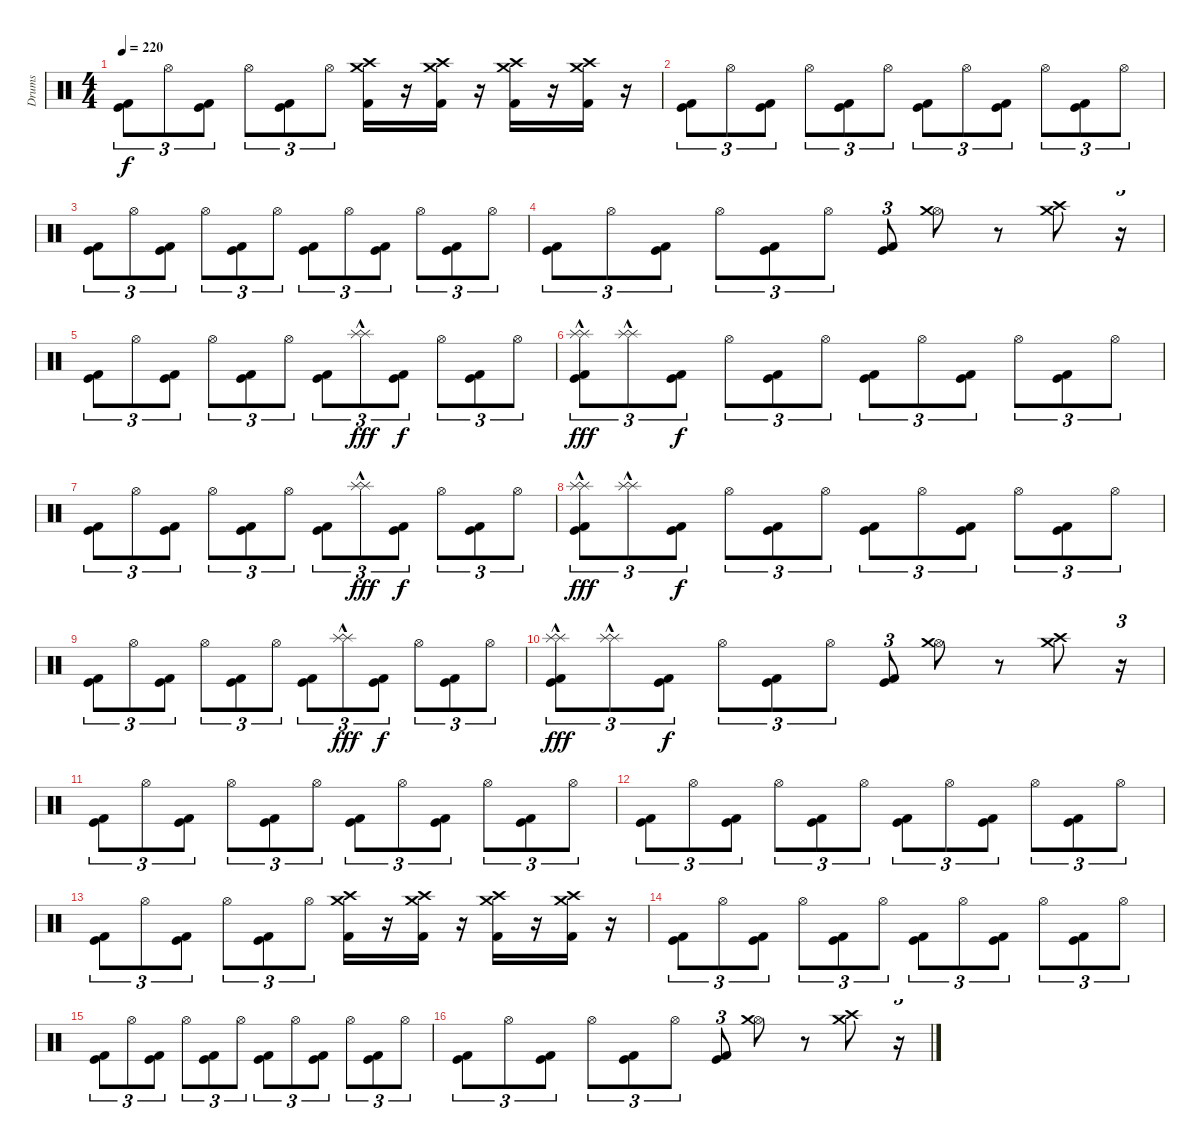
\track ("Drums" "Drums") {instrument percussion}
\staff {score}
\articulation defaults
\ts (4 4)
\tempo 220
\clef neutral
\ks c
("Kick (hit)" "Kick (hit) 2").8{tu (3 2) dy f} "Hi-Hat (open)".8{tu (3 2)} ("Kick (hit)" "Kick (hit) 2").8{tu (3 2)} "Hi-Hat (open)".8{tu (3 2)} ("Kick (hit)" "Kick (hit) 2").8{tu (3 2)} "Hi-Hat (open)".8{tu (3 2)} ("Crash high (hit)" "Crash medium (hit)" "Kick (hit) 2").16 r.16 ("Crash high (hit)" "Crash medium (hit)" "Kick (hit) 2").16 r.16 ("Crash high (hit)" "Crash medium (hit)" "Kick (hit) 2").16 r.16 ("Crash high (hit)" "Crash medium (hit)" "Kick (hit) 2").16 r.16 |
("Kick (hit)" "Kick (hit) 2").8{tu (3 2)} "Hi-Hat (open)".8{tu (3 2)} ("Kick (hit)" "Kick (hit) 2").8{tu (3 2)} "Hi-Hat (open)".8{tu (3 2)} ("Kick (hit)" "Kick (hit) 2").8{tu (3 2)} "Hi-Hat (open)".8{tu (3 2)} ("Kick (hit)" "Kick (hit) 2").8{tu (3 2)} "Hi-Hat (open)".8{tu (3 2)} ("Kick (hit)" "Kick (hit) 2").8{tu (3 2)} "Hi-Hat (open)".8{tu (3 2)} ("Kick (hit)" "Kick (hit) 2").8{tu (3 2)} "Hi-Hat (open)".8{tu (3 2)} |
("Kick (hit)" "Kick (hit) 2").8{tu (3 2)} "Hi-Hat (open)".8{tu (3 2)} ("Kick (hit)" "Kick (hit) 2").8{tu (3 2)} "Hi-Hat (open)".8{tu (3 2)} ("Kick (hit)" "Kick (hit) 2").8{tu (3 2)} "Hi-Hat (open)".8{tu (3 2)} ("Kick (hit)" "Kick (hit) 2").8{tu (3 2)} "Hi-Hat (open)".8{tu (3 2)} ("Kick (hit)" "Kick (hit) 2").8{tu (3 2)} "Hi-Hat (open)".8{tu (3 2)} ("Kick (hit)" "Kick (hit) 2").8{tu (3 2)} "Hi-Hat (open)".8{tu (3 2)} |
("Kick (hit)" "Kick (hit) 2").8{tu (3 2)} "Hi-Hat (open)".8{tu (3 2)} ("Kick (hit)" "Kick (hit) 2").8{tu (3 2)} "Hi-Hat (open)".8{tu (3 2)} ("Kick (hit)" "Kick (hit) 2").8{tu (3 2)} "Hi-Hat (open)".8{tu (3 2)} ("Kick (hit)" "Kick (hit) 2").8{tu (3 2)} ("Hi-Hat (open)" "Crash medium (hit)").8 r.8 ("Crash high (hit)" "Crash medium (hit)").8 r.16{tu (3 2)} |
("Kick (hit)" "Kick (hit) 2").8{tu (3 2)} "Hi-Hat (open)".8{tu (3 2)} ("Kick (hit)" "Kick (hit) 2").8{tu (3 2)} "Hi-Hat (open)".8{tu (3 2)} ("Kick (hit)" "Kick (hit) 2").8{tu (3 2)} "Hi-Hat (open)".8{tu (3 2)} ("Kick (hit)" "Kick (hit) 2").8{tu (3 2)} ("Splash (hit)"{hac} "Splash (hit)"{hac}).8{tu (3 2) dy fff} ("Kick (hit)" "Kick (hit) 2").8{tu (3 2) dy f} "Hi-Hat (open)".8{tu (3 2)} ("Kick (hit)" "Kick (hit) 2").8{tu (3 2)} "Hi-Hat (open)".8{tu (3 2)} |
("Splash (hit)"{hac} "Splash (hit)"{hac} "Kick (hit)" "Kick (hit) 2").8{tu (3 2) dy fff} ("Splash (hit)"{hac} "Splash (hit)"{hac}).8{tu (3 2)} ("Kick (hit)" "Kick (hit) 2").8{tu (3 2) dy f} "Hi-Hat (open)".8{tu (3 2)} ("Kick (hit)" "Kick (hit) 2").8{tu (3 2)} "Hi-Hat (open)".8{tu (3 2)} ("Kick (hit)" "Kick (hit) 2").8{tu (3 2)} "Hi-Hat (open)".8{tu (3 2)} ("Kick (hit)" "Kick (hit) 2").8{tu (3 2)} "Hi-Hat (open)".8{tu (3 2)} ("Kick (hit)" "Kick (hit) 2").8{tu (3 2)} "Hi-Hat (open)".8{tu (3 2)} |
("Kick (hit)" "Kick (hit) 2").8{tu (3 2)} "Hi-Hat (open)".8{tu (3 2)} ("Kick (hit)" "Kick (hit) 2").8{tu (3 2)} "Hi-Hat (open)".8{tu (3 2)} ("Kick (hit)" "Kick (hit) 2").8{tu (3 2)} "Hi-Hat (open)".8{tu (3 2)} ("Kick (hit)" "Kick (hit) 2").8{tu (3 2)} ("Splash (hit)"{hac} "Splash (hit)"{hac}).8{tu (3 2) dy fff} ("Kick (hit)" "Kick (hit) 2").8{tu (3 2) dy f} "Hi-Hat (open)".8{tu (3 2)} ("Kick (hit)" "Kick (hit) 2").8{tu (3 2)} "Hi-Hat (open)".8{tu (3 2)} |
("Splash (hit)"{hac} "Splash (hit)"{hac} "Kick (hit)" "Kick (hit) 2").8{tu (3 2) dy fff} ("Splash (hit)"{hac} "Splash (hit)"{hac}).8{tu (3 2)} ("Kick (hit)" "Kick (hit) 2").8{tu (3 2) dy f} "Hi-Hat (open)".8{tu (3 2)} ("Kick (hit)" "Kick (hit) 2").8{tu (3 2)} "Hi-Hat (open)".8{tu (3 2)} ("Kick (hit)" "Kick (hit) 2").8{tu (3 2)} "Hi-Hat (open)".8{tu (3 2)} ("Kick (hit)" "Kick (hit) 2").8{tu (3 2)} "Hi-Hat (open)".8{tu (3 2)} ("Kick (hit)" "Kick (hit) 2").8{tu (3 2)} "Hi-Hat (open)".8{tu (3 2)} |
("Kick (hit)" "Kick (hit) 2").8{tu (3 2)} "Hi-Hat (open)".8{tu (3 2)} ("Kick (hit)" "Kick (hit) 2").8{tu (3 2)} "Hi-Hat (open)".8{tu (3 2)} ("Kick (hit)" "Kick (hit) 2").8{tu (3 2)} "Hi-Hat (open)".8{tu (3 2)} ("Kick (hit)" "Kick (hit) 2").8{tu (3 2)} ("Splash (hit)"{hac} "Splash (hit)"{hac}).8{tu (3 2) dy fff} ("Kick (hit)" "Kick (hit) 2").8{tu (3 2) dy f} "Hi-Hat (open)".8{tu (3 2)} ("Kick (hit)" "Kick (hit) 2").8{tu (3 2)} "Hi-Hat (open)".8{tu (3 2)} |
("Splash (hit)"{hac} "Splash (hit)"{hac} "Kick (hit)" "Kick (hit) 2").8{tu (3 2) dy fff} ("Splash (hit)"{hac} "Splash (hit)"{hac}).8{tu (3 2)} ("Kick (hit)" "Kick (hit) 2").8{tu (3 2) dy f} "Hi-Hat (open)".8{tu (3 2)} ("Kick (hit)" "Kick (hit) 2").8{tu (3 2)} "Hi-Hat (open)".8{tu (3 2)} ("Kick (hit)" "Kick (hit) 2").8{tu (3 2)} ("Hi-Hat (open)" "Crash medium (hit)").8 r.8 ("Crash high (hit)" "Crash medium (hit)").8 r.16{tu (3 2)} |
("Kick (hit)" "Kick (hit) 2").8{tu (3 2)} "Hi-Hat (open)".8{tu (3 2)} ("Kick (hit)" "Kick (hit) 2").8{tu (3 2)} "Hi-Hat (open)".8{tu (3 2)} ("Kick (hit)" "Kick (hit) 2").8{tu (3 2)} "Hi-Hat (open)".8{tu (3 2)} ("Kick (hit)" "Kick (hit) 2").8{tu (3 2)} "Hi-Hat (open)".8{tu (3 2)} ("Kick (hit)" "Kick (hit) 2").8{tu (3 2)} "Hi-Hat (open)".8{tu (3 2)} ("Kick (hit)" "Kick (hit) 2").8{tu (3 2)} "Hi-Hat (open)".8{tu (3 2)} |
("Kick (hit)" "Kick (hit) 2").8{tu (3 2)} "Hi-Hat (open)".8{tu (3 2)} ("Kick (hit)" "Kick (hit) 2").8{tu (3 2)} "Hi-Hat (open)".8{tu (3 2)} ("Kick (hit)" "Kick (hit) 2").8{tu (3 2)} "Hi-Hat (open)".8{tu (3 2)} ("Kick (hit)" "Kick (hit) 2").8{tu (3 2)} "Hi-Hat (open)".8{tu (3 2)} ("Kick (hit)" "Kick (hit) 2").8{tu (3 2)} "Hi-Hat (open)".8{tu (3 2)} ("Kick (hit)" "Kick (hit) 2").8{tu (3 2)} "Hi-Hat (open)".8{tu (3 2)} |
("Kick (hit)" "Kick (hit) 2").8{tu (3 2)} "Hi-Hat (open)".8{tu (3 2)} ("Kick (hit)" "Kick (hit) 2").8{tu (3 2)} "Hi-Hat (open)".8{tu (3 2)} ("Kick (hit)" "Kick (hit) 2").8{tu (3 2)} "Hi-Hat (open)".8{tu (3 2)} ("Crash high (hit)" "Crash medium (hit)" "Kick (hit) 2").16 r.16 ("Crash high (hit)" "Crash medium (hit)" "Kick (hit) 2").16 r.16 ("Crash high (hit)" "Crash medium (hit)" "Kick (hit) 2").16 r.16 ("Crash high (hit)" "Crash medium (hit)" "Kick (hit) 2").16 r.16 |
("Kick (hit)" "Kick (hit) 2").8{tu (3 2)} "Hi-Hat (open)".8{tu (3 2)} ("Kick (hit)" "Kick (hit) 2").8{tu (3 2)} "Hi-Hat (open)".8{tu (3 2)} ("Kick (hit)" "Kick (hit) 2").8{tu (3 2)} "Hi-Hat (open)".8{tu (3 2)} ("Kick (hit)" "Kick (hit) 2").8{tu (3 2)} "Hi-Hat (open)".8{tu (3 2)} ("Kick (hit)" "Kick (hit) 2").8{tu (3 2)} "Hi-Hat (open)".8{tu (3 2)} ("Kick (hit)" "Kick (hit) 2").8{tu (3 2)} "Hi-Hat (open)".8{tu (3 2)} |
("Kick (hit)" "Kick (hit) 2").8{tu (3 2)} "Hi-Hat (open)".8{tu (3 2)} ("Kick (hit)" "Kick (hit) 2").8{tu (3 2)} "Hi-Hat (open)".8{tu (3 2)} ("Kick (hit)" "Kick (hit) 2").8{tu (3 2)} "Hi-Hat (open)".8{tu (3 2)} ("Kick (hit)" "Kick (hit) 2").8{tu (3 2)} "Hi-Hat (open)".8{tu (3 2)} ("Kick (hit)" "Kick (hit) 2").8{tu (3 2)} "Hi-Hat (open)".8{tu (3 2)} ("Kick (hit)" "Kick (hit) 2").8{tu (3 2)} "Hi-Hat (open)".8{tu (3 2)} |
("Kick (hit)" "Kick (hit) 2").8{tu (3 2)} "Hi-Hat (open)".8{tu (3 2)} ("Kick (hit)" "Kick (hit) 2").8{tu (3 2)} "Hi-Hat (open)".8{tu (3 2)} ("Kick (hit)" "Kick (hit) 2").8{tu (3 2)} "Hi-Hat (open)".8{tu (3 2)} ("Kick (hit)" "Kick (hit) 2").8{tu (3 2)} ("Hi-Hat (open)" "Crash medium (hit)").8 r.8 ("Crash high (hit)" "Crash medium (hit)").8 r.16{tu (3 2)}
